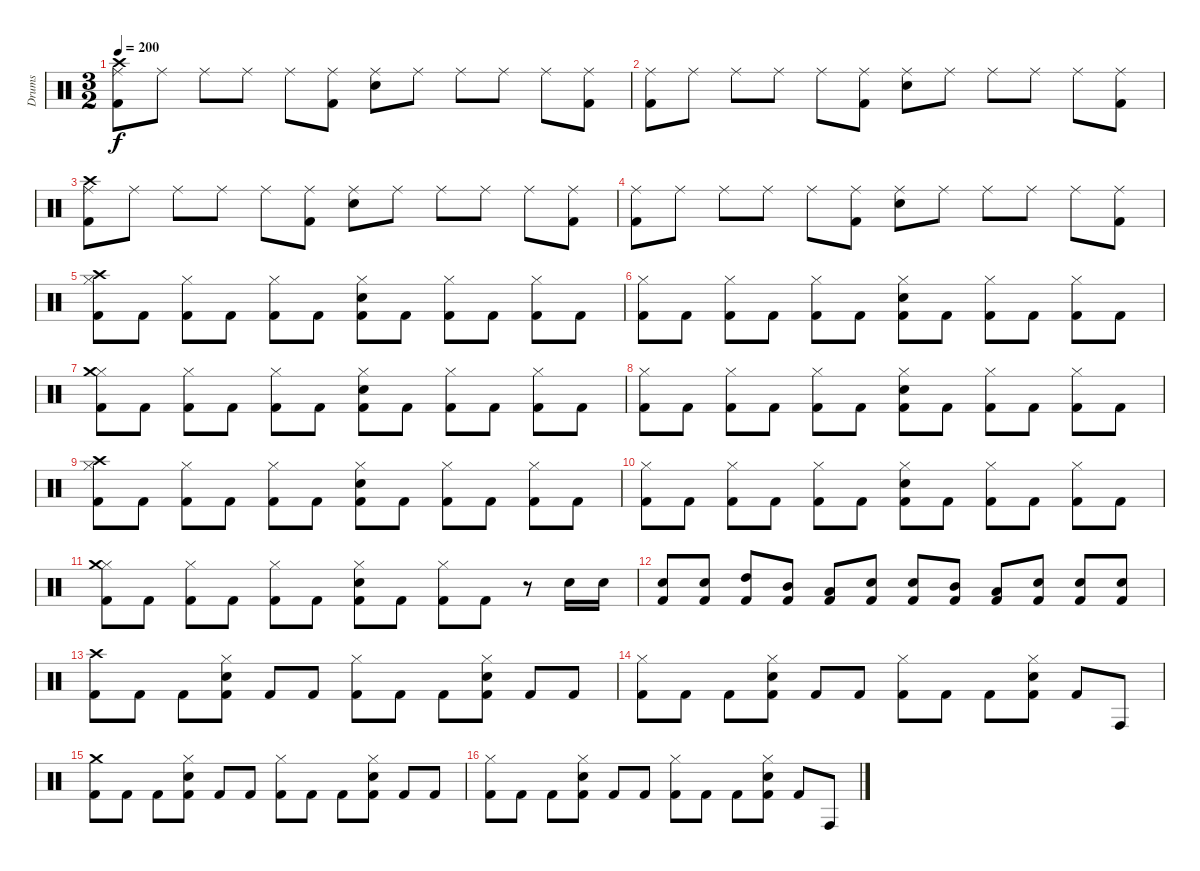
\track ("Drums" "Drums") {instrument percussion}
\staff {score}
\articulation defaults
\ts (3 2)
\tempo 200
\clef neutral
\ks c
("Kick (hit) 2" "Ride (middle)" "Crash high (hit)").8{dy f} "Ride (middle)".8 "Ride (middle)".8 "Ride (middle)".8 "Ride (middle)".8 ("Kick (hit) 2" "Ride (middle)").8 ("Ride (middle)" "Snare (hit) 2").8 "Ride (middle)".8 "Ride (middle)".8 "Ride (middle)".8 "Ride (middle)".8 ("Kick (hit) 2" "Ride (middle)").8 |
("Kick (hit) 2" "Ride (middle)").8 "Ride (middle)".8 "Ride (middle)".8 "Ride (middle)".8 "Ride (middle)".8 ("Kick (hit) 2" "Ride (middle)").8 ("Ride (middle)" "Snare (hit) 2").8 "Ride (middle)".8 "Ride (middle)".8 "Ride (middle)".8 "Ride (middle)".8 ("Ride (middle)" "Kick (hit) 2").8 |
("Kick (hit) 2" "Ride (middle)" "Crash high (hit)").8 "Ride (middle)".8 "Ride (middle)".8 "Ride (middle)".8 "Ride (middle)".8 ("Kick (hit) 2" "Ride (middle)").8 ("Ride (middle)" "Snare (hit) 2").8 "Ride (middle)".8 "Ride (middle)".8 "Ride (middle)".8 "Ride (middle)".8 ("Kick (hit) 2" "Ride (middle)").8 |
("Kick (hit) 2" "Ride (middle)").8 "Ride (middle)".8 "Ride (middle)".8 "Ride (middle)".8 "Ride (middle)".8 ("Kick (hit) 2" "Ride (middle)").8 ("Ride (middle)" "Snare (hit) 2").8 "Ride (middle)".8 "Ride (middle)".8 "Ride (middle)".8 "Ride (middle)".8 ("Ride (middle)" "Kick (hit) 2").8 |
("Kick (hit) 2" "Hi-Hat (closed)" "Crash high (hit)").8 "Kick (hit) 2".8 ("Kick (hit) 2" "Hi-Hat (closed)").8 "Kick (hit) 2".8 ("Kick (hit) 2" "Hi-Hat (closed)").8 "Kick (hit) 2".8 ("Kick (hit) 2" "Hi-Hat (closed)" "Snare (hit) 2").8 "Kick (hit) 2".8 ("Kick (hit) 2" "Hi-Hat (closed)").8 "Kick (hit) 2".8 ("Kick (hit) 2" "Hi-Hat (closed)").8 "Kick (hit) 2".8 |
("Kick (hit) 2" "Hi-Hat (closed)").8 "Kick (hit) 2".8 ("Kick (hit) 2" "Hi-Hat (closed)").8 "Kick (hit) 2".8 ("Kick (hit) 2" "Hi-Hat (closed)").8 "Kick (hit) 2".8 ("Kick (hit) 2" "Hi-Hat (closed)" "Snare (hit) 2").8 "Kick (hit) 2".8 ("Kick (hit) 2" "Hi-Hat (closed)").8 "Kick (hit) 2".8 ("Kick (hit) 2" "Hi-Hat (closed)").8 "Kick (hit) 2".8 |
("Kick (hit) 2" "Hi-Hat (closed)" "Crash medium (hit)").8 "Kick (hit) 2".8 ("Kick (hit) 2" "Hi-Hat (closed)").8 "Kick (hit) 2".8 ("Kick (hit) 2" "Hi-Hat (closed)").8 "Kick (hit) 2".8 ("Kick (hit) 2" "Hi-Hat (closed)" "Snare (hit) 2").8 "Kick (hit) 2".8 ("Kick (hit) 2" "Hi-Hat (closed)").8 "Kick (hit) 2".8 ("Kick (hit) 2" "Hi-Hat (closed)").8 "Kick (hit) 2".8 |
("Kick (hit) 2" "Hi-Hat (closed)").8 "Kick (hit) 2".8 ("Kick (hit) 2" "Hi-Hat (closed)").8 "Kick (hit) 2".8 ("Kick (hit) 2" "Hi-Hat (closed)").8 "Kick (hit) 2".8 ("Kick (hit) 2" "Hi-Hat (closed)" "Snare (hit) 2").8 "Kick (hit) 2".8 ("Kick (hit) 2" "Hi-Hat (closed)").8 "Kick (hit) 2".8 ("Kick (hit) 2" "Hi-Hat (closed)").8 "Kick (hit) 2".8 |
("Kick (hit) 2" "Hi-Hat (closed)" "Crash high (hit)").8 "Kick (hit) 2".8 ("Kick (hit) 2" "Hi-Hat (closed)").8 "Kick (hit) 2".8 ("Kick (hit) 2" "Hi-Hat (closed)").8 "Kick (hit) 2".8 ("Kick (hit) 2" "Hi-Hat (closed)" "Snare (hit) 2").8 "Kick (hit) 2".8 ("Kick (hit) 2" "Hi-Hat (closed)").8 "Kick (hit) 2".8 ("Kick (hit) 2" "Hi-Hat (closed)").8 "Kick (hit) 2".8 |
("Kick (hit) 2" "Hi-Hat (closed)").8 "Kick (hit) 2".8 ("Kick (hit) 2" "Hi-Hat (closed)").8 "Kick (hit) 2".8 ("Kick (hit) 2" "Hi-Hat (closed)").8 "Kick (hit) 2".8 ("Kick (hit) 2" "Hi-Hat (closed)" "Snare (hit) 2").8 "Kick (hit) 2".8 ("Kick (hit) 2" "Hi-Hat (closed)").8 "Kick (hit) 2".8 ("Kick (hit) 2" "Hi-Hat (closed)").8 "Kick (hit) 2".8 |
("Kick (hit) 2" "Hi-Hat (closed)" "Crash medium (hit)").8 "Kick (hit) 2".8 ("Kick (hit) 2" "Hi-Hat (closed)").8 "Kick (hit) 2".8 ("Kick (hit) 2" "Hi-Hat (closed)").8 "Kick (hit) 2".8 ("Kick (hit) 2" "Hi-Hat (closed)" "Snare (hit) 2").8 "Kick (hit) 2".8 ("Kick (hit) 2" "Hi-Hat (closed)").8 "Kick (hit) 2".8 r.8 "Snare (hit) 2".16 "Snare (hit) 2".16 |
("Kick (hit) 2" "Snare (hit) 2").8 ("Kick (hit) 2" "Snare (hit) 2").8 ("Kick (hit) 2" "High Tom (hit)").8 ("Kick (hit) 2" "Mid Tom (hit)").8 ("Kick (hit) 2" "Low Tom (hit)").8 ("Kick (hit) 2" "Snare (hit) 2").8 ("Kick (hit) 2" "Snare (hit) 2").8 ("Kick (hit) 2" "Mid Tom (hit)").8 ("Kick (hit) 2" "Low Tom (hit)").8 ("Kick (hit) 2" "Snare (hit) 2").8 ("Kick (hit) 2" "Snare (hit) 2").8 ("Kick (hit) 2" "Snare (hit) 2").8 |
("Kick (hit) 2" "Crash high (hit)").8 "Kick (hit) 2".8 "Kick (hit) 2".8 ("Kick (hit) 2" "Hi-Hat (closed)" "Snare (hit) 2").8 "Kick (hit) 2".8 "Kick (hit) 2".8 ("Kick (hit) 2" "Hi-Hat (closed)").8 "Kick (hit) 2".8 "Kick (hit) 2".8 ("Kick (hit) 2" "Hi-Hat (closed)" "Snare (hit) 2").8 "Kick (hit) 2".8 "Kick (hit) 2".8 |
("Kick (hit) 2" "Hi-Hat (closed)").8 "Kick (hit) 2".8 "Kick (hit) 2".8 ("Kick (hit) 2" "Hi-Hat (closed)" "Snare (hit) 2").8 "Kick (hit) 2".8 "Kick (hit) 2".8 ("Kick (hit) 2" "Hi-Hat (closed)").8 "Kick (hit) 2".8 "Kick (hit) 2".8 ("Kick (hit) 2" "Hi-Hat (closed)" "Snare (hit) 2").8 "Kick (hit) 2".8 "Conga high (hit)".8 |
("Kick (hit) 2" "Crash medium (hit)").8 "Kick (hit) 2".8 "Kick (hit) 2".8 ("Kick (hit) 2" "Hi-Hat (closed)" "Snare (hit) 2").8 "Kick (hit) 2".8 "Kick (hit) 2".8 ("Kick (hit) 2" "Hi-Hat (closed)").8 "Kick (hit) 2".8 "Kick (hit) 2".8 ("Kick (hit) 2" "Hi-Hat (closed)" "Snare (hit) 2").8 "Kick (hit) 2".8 "Kick (hit) 2".8 |
("Kick (hit) 2" "Hi-Hat (closed)").8 "Kick (hit) 2".8 "Kick (hit) 2".8 ("Kick (hit) 2" "Hi-Hat (closed)" "Snare (hit) 2").8 "Kick (hit) 2".8 "Kick (hit) 2".8 ("Kick (hit) 2" "Hi-Hat (closed)").8 "Kick (hit) 2".8 "Kick (hit) 2".8 ("Kick (hit) 2" "Hi-Hat (closed)" "Snare (hit) 2").8 "Kick (hit) 2".8 "Conga high (hit)".8
